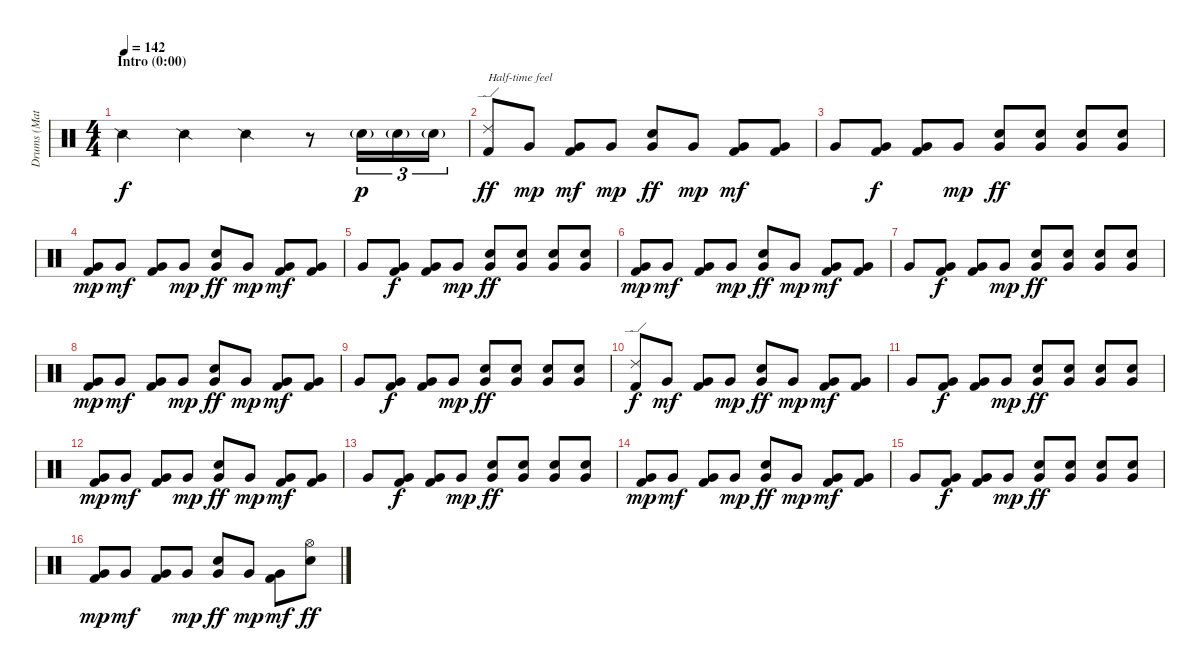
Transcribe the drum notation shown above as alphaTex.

\track ("Drums (Matt Sorum)" "Drums (Mat") {instrument percussion}
\staff {score}
\articulation defaults
\ts (4 4)
\section ("" "Intro (0:00)")
\tempo 142
\clef neutral
\ks c "Snare (side stick) 2".4{dy f} "Snare (side stick) 2".4 "Snare (side stick) 2".4
r.8 "Snare (hit) 2"{g}.16{tu (3 2) dy p} "Snare (hit) 2"{g}.16{tu (3 2)} "Snare (hit) 2"{g}.16{tu (3 2)} |
("Ride (edge) 2" "Kick (hit) 2").8{txt "Half-time feel" dy ff} "Very Low Tom (hit)".8{dy mp} ("Very Low Tom (hit)" "Kick (hit) 2").8{dy mf} "Very Low Tom (hit)".8{dy mp} ("Very Low Tom (hit)" "Snare (hit) 2").8{dy ff} "Very Low Tom (hit)".8{dy mp} ("Very Low Tom (hit)" "Kick (hit) 2").8{dy mf} ("Very Low Tom (hit)" "Kick (hit) 2").8 |
"Very Low Tom (hit)".8 ("Very Low Tom (hit)" "Kick (hit) 2").8{dy f} ("Very Low Tom (hit)" "Kick (hit) 2").8 "Very Low Tom (hit)".8{dy mp} ("Very Low Tom (hit)" "Snare (hit) 2").8{dy ff} ("Very Low Tom (hit)" "Snare (hit) 2").8 ("Very Low Tom (hit)" "Snare (hit) 2").8 ("Very Low Tom (hit)" "Snare (hit) 2").8 |
("Very Low Tom (hit)" "Kick (hit) 2").8{dy mp} "Very Low Tom (hit)".8{dy mf} ("Very Low Tom (hit)" "Kick (hit) 2").8 "Very Low Tom (hit)".8{dy mp} ("Very Low Tom (hit)" "Snare (hit) 2").8{dy ff} "Very Low Tom (hit)".8{dy mp} ("Very Low Tom (hit)" "Kick (hit) 2").8{dy mf} ("Very Low Tom (hit)" "Kick (hit) 2").8 |
"Very Low Tom (hit)".8 ("Very Low Tom (hit)" "Kick (hit) 2").8{dy f} ("Very Low Tom (hit)" "Kick (hit) 2").8 "Very Low Tom (hit)".8{dy mp} ("Very Low Tom (hit)" "Snare (hit) 2").8{dy ff} ("Very Low Tom (hit)" "Snare (hit) 2").8 ("Very Low Tom (hit)" "Snare (hit) 2").8 ("Very Low Tom (hit)" "Snare (hit) 2").8 |
("Very Low Tom (hit)" "Kick (hit) 2").8{dy mp} "Very Low Tom (hit)".8{dy mf} ("Very Low Tom (hit)" "Kick (hit) 2").8 "Very Low Tom (hit)".8{dy mp} ("Very Low Tom (hit)" "Snare (hit) 2").8{dy ff} "Very Low Tom (hit)".8{dy mp} ("Very Low Tom (hit)" "Kick (hit) 2").8{dy mf} ("Very Low Tom (hit)" "Kick (hit) 2").8 |
"Very Low Tom (hit)".8 ("Very Low Tom (hit)" "Kick (hit) 2").8{dy f} ("Very Low Tom (hit)" "Kick (hit) 2").8 "Very Low Tom (hit)".8{dy mp} ("Very Low Tom (hit)" "Snare (hit) 2").8{dy ff} ("Very Low Tom (hit)" "Snare (hit) 2").8 ("Very Low Tom (hit)" "Snare (hit) 2").8 ("Very Low Tom (hit)" "Snare (hit) 2").8 |
("Very Low Tom (hit)" "Kick (hit) 2").8{dy mp} "Very Low Tom (hit)".8{dy mf} ("Very Low Tom (hit)" "Kick (hit) 2").8 "Very Low Tom (hit)".8{dy mp} ("Very Low Tom (hit)" "Snare (hit) 2").8{dy ff} "Very Low Tom (hit)".8{dy mp} ("Very Low Tom (hit)" "Kick (hit) 2").8{dy mf} ("Very Low Tom (hit)" "Kick (hit) 2").8 |
"Very Low Tom (hit)".8 ("Very Low Tom (hit)" "Kick (hit) 2").8{dy f} ("Very Low Tom (hit)" "Kick (hit) 2").8 "Very Low Tom (hit)".8{dy mp} ("Very Low Tom (hit)" "Snare (hit) 2").8{dy ff} ("Very Low Tom (hit)" "Snare (hit) 2").8 ("Very Low Tom (hit)" "Snare (hit) 2").8 ("Very Low Tom (hit)" "Snare (hit) 2").8 |
("Ride (edge) 2" "Kick (hit) 2").8{dy f} "Very Low Tom (hit)".8{dy mf} ("Very Low Tom (hit)" "Kick (hit) 2").8 "Very Low Tom (hit)".8{dy mp} ("Very Low Tom (hit)" "Snare (hit) 2").8{dy ff} "Very Low Tom (hit)".8{dy mp} ("Very Low Tom (hit)" "Kick (hit) 2").8{dy mf} ("Very Low Tom (hit)" "Kick (hit) 2").8 |
"Very Low Tom (hit)".8 ("Very Low Tom (hit)" "Kick (hit) 2").8{dy f} ("Very Low Tom (hit)" "Kick (hit) 2").8 "Very Low Tom (hit)".8{dy mp} ("Very Low Tom (hit)" "Snare (hit) 2").8{dy ff} ("Very Low Tom (hit)" "Snare (hit) 2").8 ("Very Low Tom (hit)" "Snare (hit) 2").8 ("Very Low Tom (hit)" "Snare (hit) 2").8 |
("Very Low Tom (hit)" "Kick (hit) 2").8{dy mp} "Very Low Tom (hit)".8{dy mf} ("Very Low Tom (hit)" "Kick (hit) 2").8 "Very Low Tom (hit)".8{dy mp} ("Very Low Tom (hit)" "Snare (hit) 2").8{dy ff} "Very Low Tom (hit)".8{dy mp} ("Very Low Tom (hit)" "Kick (hit) 2").8{dy mf} ("Very Low Tom (hit)" "Kick (hit) 2").8 |
"Very Low Tom (hit)".8 ("Very Low Tom (hit)" "Kick (hit) 2").8{dy f} ("Very Low Tom (hit)" "Kick (hit) 2").8 "Very Low Tom (hit)".8{dy mp} ("Very Low Tom (hit)" "Snare (hit) 2").8{dy ff} ("Very Low Tom (hit)" "Snare (hit) 2").8 ("Very Low Tom (hit)" "Snare (hit) 2").8 ("Very Low Tom (hit)" "Snare (hit) 2").8 |
("Very Low Tom (hit)" "Kick (hit) 2").8{dy mp} "Very Low Tom (hit)".8{dy mf} ("Very Low Tom (hit)" "Kick (hit) 2").8 "Very Low Tom (hit)".8{dy mp} ("Very Low Tom (hit)" "Snare (hit) 2").8{dy ff} "Very Low Tom (hit)".8{dy mp} ("Very Low Tom (hit)" "Kick (hit) 2").8{dy mf} ("Very Low Tom (hit)" "Kick (hit) 2").8 |
"Very Low Tom (hit)".8 ("Very Low Tom (hit)" "Kick (hit) 2").8{dy f} ("Very Low Tom (hit)" "Kick (hit) 2").8 "Very Low Tom (hit)".8{dy mp} ("Very Low Tom (hit)" "Snare (hit) 2").8{dy ff} ("Very Low Tom (hit)" "Snare (hit) 2").8 ("Very Low Tom (hit)" "Snare (hit) 2").8 ("Very Low Tom (hit)" "Snare (hit) 2").8 |
("Very Low Tom (hit)" "Kick (hit) 2").8{dy mp} "Very Low Tom (hit)".8{dy mf} ("Very Low Tom (hit)" "Kick (hit) 2").8 "Very Low Tom (hit)".8{dy mp} ("Very Low Tom (hit)" "Snare (hit) 2").8{dy ff} "Very Low Tom (hit)".8{dy mp} ("Very Low Tom (hit)" "Kick (hit) 2").8{dy mf} ("Hi-Hat (open)" "Snare (hit) 2").8{dy ff}
